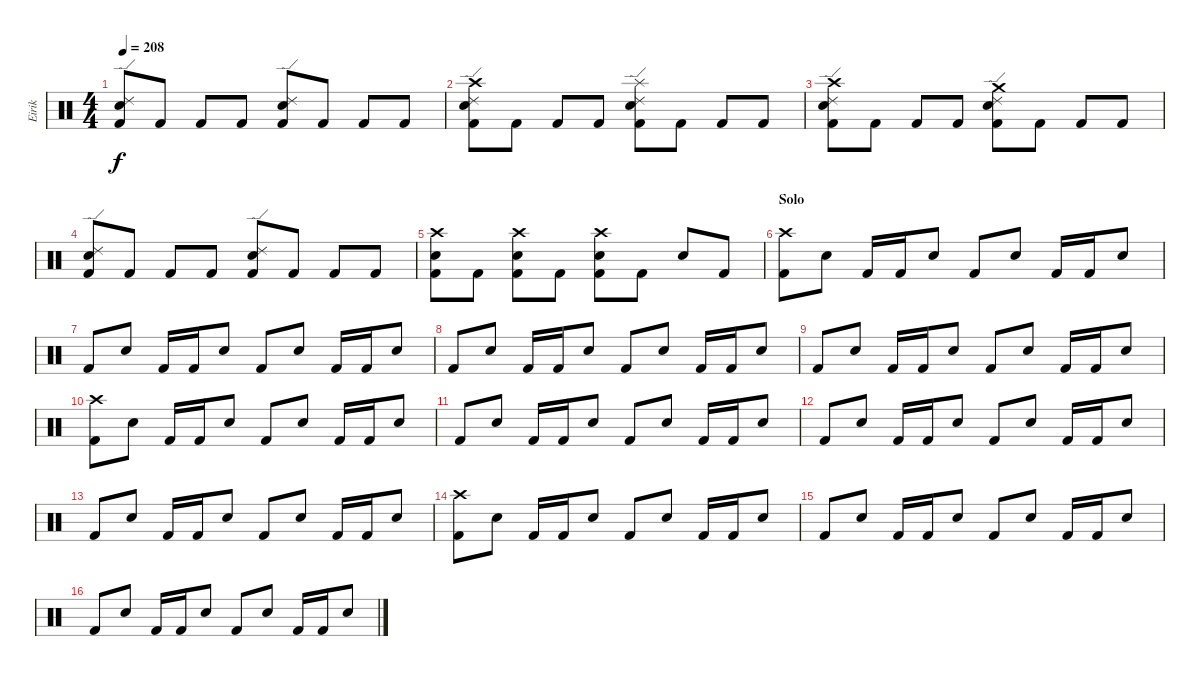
\track ("Eirik" "Eirik") {instrument percussion}
\staff {score}
\articulation defaults
\ts (4 4)
\tempo 208
\clef neutral
\ks c
("Ride (edge) 2" "Snare (hit) 2" "Kick (hit) 2").8{dy f} "Kick (hit) 2".8 "Kick (hit) 2".8 "Kick (hit) 2".8 ("Ride (edge) 2" "Snare (hit) 2" "Kick (hit) 2").8 "Kick (hit) 2".8 "Kick (hit) 2".8 "Kick (hit) 2".8 |
("Crash high (hit)" "Ride (edge) 2" "Snare (hit) 2" "Kick (hit) 2").8 "Kick (hit) 2".8 "Kick (hit) 2".8 "Kick (hit) 2".8 ("Splash (hit)" "Ride (edge) 2" "Snare (hit) 2" "Kick (hit) 2").8 "Kick (hit) 2".8 "Kick (hit) 2".8 "Kick (hit) 2".8 |
("Crash high (hit)" "Ride (edge) 2" "Snare (hit) 2" "Kick (hit) 2").8 "Kick (hit) 2".8 "Kick (hit) 2".8 "Kick (hit) 2".8 ("Crash medium (hit)" "Ride (edge) 2" "Snare (hit) 2" "Kick (hit) 2").8 "Kick (hit) 2".8 "Kick (hit) 2".8 "Kick (hit) 2".8 |
("Ride (edge) 2" "Snare (hit) 2" "Kick (hit) 2").8 "Kick (hit) 2".8 "Kick (hit) 2".8 "Kick (hit) 2".8 ("Ride (edge) 2" "Snare (hit) 2" "Kick (hit) 2").8 "Kick (hit) 2".8 "Kick (hit) 2".8 "Kick (hit) 2".8 |
("Crash high (hit)" "Snare (hit) 2" "Kick (hit) 2").8 "Kick (hit) 2".8 ("Crash high (hit)" "Snare (hit) 2" "Kick (hit) 2").8 "Kick (hit) 2".8 ("Crash high (hit)" "Snare (hit) 2" "Kick (hit) 2").8 "Kick (hit) 2".8 "Snare (hit) 2".8 "Kick (hit) 2".8 |
\section ("" "Solo")
("Crash high (hit)" "Kick (hit) 2").8 "Snare (hit) 2".8 "Kick (hit) 2".16 "Kick (hit) 2".16 "Snare (hit) 2".8 "Kick (hit) 2".8 "Snare (hit) 2".8 "Kick (hit) 2".16 "Kick (hit) 2".16 "Snare (hit) 2".8 |
"Kick (hit) 2".8 "Snare (hit) 2".8 "Kick (hit) 2".16 "Kick (hit) 2".16 "Snare (hit) 2".8 "Kick (hit) 2".8 "Snare (hit) 2".8 "Kick (hit) 2".16 "Kick (hit) 2".16 "Snare (hit) 2".8 |
"Kick (hit) 2".8 "Snare (hit) 2".8 "Kick (hit) 2".16 "Kick (hit) 2".16 "Snare (hit) 2".8 "Kick (hit) 2".8 "Snare (hit) 2".8 "Kick (hit) 2".16 "Kick (hit) 2".16 "Snare (hit) 2".8 |
"Kick (hit) 2".8 "Snare (hit) 2".8 "Kick (hit) 2".16 "Kick (hit) 2".16 "Snare (hit) 2".8 "Kick (hit) 2".8 "Snare (hit) 2".8 "Kick (hit) 2".16 "Kick (hit) 2".16 "Snare (hit) 2".8 |
("Crash high (hit)" "Kick (hit) 2").8 "Snare (hit) 2".8 "Kick (hit) 2".16 "Kick (hit) 2".16 "Snare (hit) 2".8 "Kick (hit) 2".8 "Snare (hit) 2".8 "Kick (hit) 2".16 "Kick (hit) 2".16 "Snare (hit) 2".8 |
"Kick (hit) 2".8 "Snare (hit) 2".8 "Kick (hit) 2".16 "Kick (hit) 2".16 "Snare (hit) 2".8 "Kick (hit) 2".8 "Snare (hit) 2".8 "Kick (hit) 2".16 "Kick (hit) 2".16 "Snare (hit) 2".8 |
"Kick (hit) 2".8 "Snare (hit) 2".8 "Kick (hit) 2".16 "Kick (hit) 2".16 "Snare (hit) 2".8 "Kick (hit) 2".8 "Snare (hit) 2".8 "Kick (hit) 2".16 "Kick (hit) 2".16 "Snare (hit) 2".8 |
"Kick (hit) 2".8 "Snare (hit) 2".8 "Kick (hit) 2".16 "Kick (hit) 2".16 "Snare (hit) 2".8 "Kick (hit) 2".8 "Snare (hit) 2".8 "Kick (hit) 2".16 "Kick (hit) 2".16 "Snare (hit) 2".8 |
("Crash high (hit)" "Kick (hit) 2").8 "Snare (hit) 2".8 "Kick (hit) 2".16 "Kick (hit) 2".16 "Snare (hit) 2".8 "Kick (hit) 2".8 "Snare (hit) 2".8 "Kick (hit) 2".16 "Kick (hit) 2".16 "Snare (hit) 2".8 |
"Kick (hit) 2".8 "Snare (hit) 2".8 "Kick (hit) 2".16 "Kick (hit) 2".16 "Snare (hit) 2".8 "Kick (hit) 2".8 "Snare (hit) 2".8 "Kick (hit) 2".16 "Kick (hit) 2".16 "Snare (hit) 2".8 |
"Kick (hit) 2".8 "Snare (hit) 2".8 "Kick (hit) 2".16 "Kick (hit) 2".16 "Snare (hit) 2".8 "Kick (hit) 2".8 "Snare (hit) 2".8 "Kick (hit) 2".16 "Kick (hit) 2".16 "Snare (hit) 2".8
